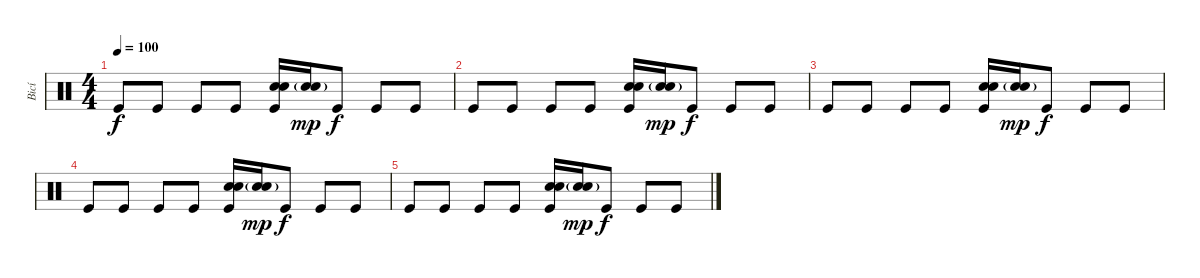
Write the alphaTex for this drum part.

\track ("Bicí" "Bicí") {instrument percussion}
\staff {score}
\articulation defaults
\ts (4 4)
\tempo 100
\clef neutral
\ks c "Kick (hit)".8{dy f} "Kick (hit)".8 "Kick (hit)".8 "Kick (hit)".8
("Hand Clap (hit)" "Electric Snare (hit)" "Kick (hit)").16 ("Hand Clap (hit)"{g} "Electric Snare (hit)"{g}).16{dy mp} "Kick (hit)".8{dy f} "Kick (hit)".8 "Kick (hit)".8 |
"Kick (hit)".8 "Kick (hit)".8 "Kick (hit)".8 "Kick (hit)".8 ("Hand Clap (hit)" "Electric Snare (hit)" "Kick (hit)").16 ("Hand Clap (hit)"{g} "Electric Snare (hit)"{g}).16{dy mp} "Kick (hit)".8{dy f} "Kick (hit)".8 "Kick (hit)".8 |
"Kick (hit)".8 "Kick (hit)".8 "Kick (hit)".8 "Kick (hit)".8 ("Hand Clap (hit)" "Electric Snare (hit)" "Kick (hit)").16 ("Hand Clap (hit)"{g} "Electric Snare (hit)"{g}).16{dy mp} "Kick (hit)".8{dy f} "Kick (hit)".8 "Kick (hit)".8 |
"Kick (hit)".8 "Kick (hit)".8 "Kick (hit)".8 "Kick (hit)".8 ("Hand Clap (hit)" "Electric Snare (hit)" "Kick (hit)").16 ("Hand Clap (hit)"{g} "Electric Snare (hit)"{g}).16{dy mp} "Kick (hit)".8{dy f} "Kick (hit)".8 "Kick (hit)".8 |
"Kick (hit)".8{volume 0} "Kick (hit)".8 "Kick (hit)".8 "Kick (hit)".8 ("Hand Clap (hit)" "Electric Snare (hit)" "Kick (hit)").16 ("Hand Clap (hit)"{g} "Electric Snare (hit)"{g}).16{dy mp} "Kick (hit)".8{dy f} "Kick (hit)".8 "Kick (hit)".8
